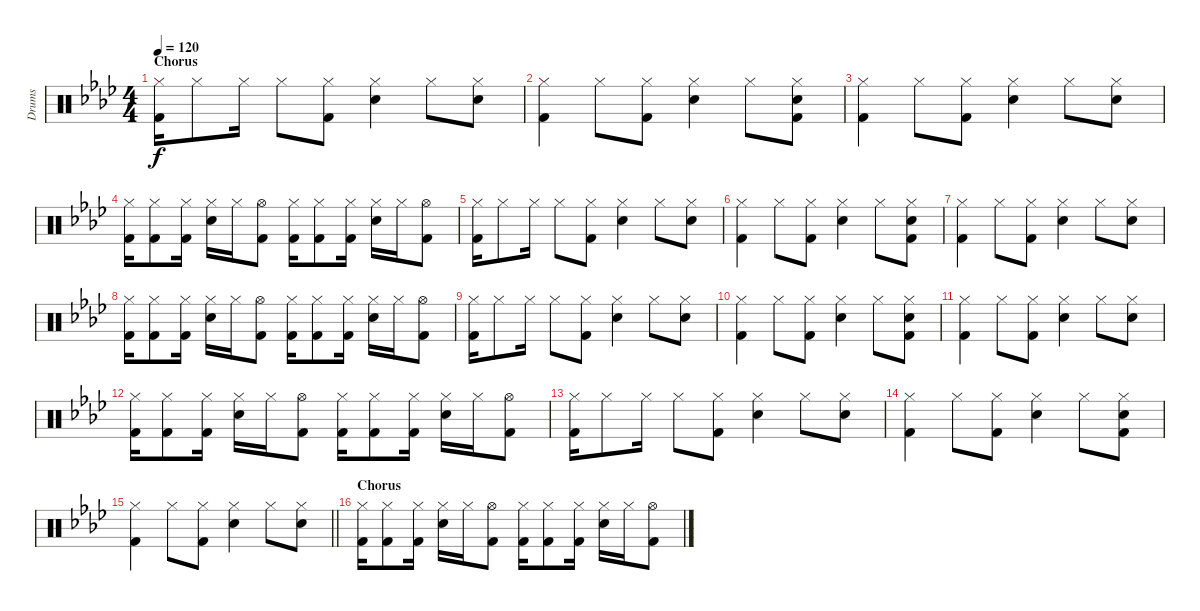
\track ("Drums" "Drums") {instrument percussion}
\staff {score}
\articulation defaults
\ts (4 4)
\section ("" "Chorus")
\tempo 120
\clef neutral
\ks fminor
("Hi-Hat (closed)" "Kick (hit) 2").16{dy f} "Hi-Hat (closed)".8 "Hi-Hat (closed)".16 "Hi-Hat (closed)".8 ("Hi-Hat (closed)" "Kick (hit) 2").8 ("Hi-Hat (closed)" "Snare (hit) 2").4 "Hi-Hat (closed)".8 ("Hi-Hat (closed)" "Snare (hit) 2").8 |
("Hi-Hat (closed)" "Kick (hit) 2").4 "Hi-Hat (closed)".8 ("Hi-Hat (closed)" "Kick (hit) 2").8 ("Hi-Hat (closed)" "Snare (hit) 2").4 "Hi-Hat (closed)".8 ("Hi-Hat (closed)" "Snare (hit) 2" "Kick (hit) 2").8 |
("Hi-Hat (closed)" "Kick (hit) 2").4 "Hi-Hat (closed)".8 ("Hi-Hat (closed)" "Kick (hit) 2").8 ("Hi-Hat (closed)" "Snare (hit) 2").4 "Hi-Hat (closed)".8 ("Hi-Hat (closed)" "Snare (hit) 2").8 |
("Hi-Hat (closed)" "Kick (hit) 2").16 ("Hi-Hat (closed)" "Kick (hit) 2").8 ("Hi-Hat (closed)" "Kick (hit) 2").16 ("Hi-Hat (closed)" "Snare (hit) 2").16 "Hi-Hat (closed)".16 ("Hi-Hat (open)" "Kick (hit) 2").8 ("Hi-Hat (closed)" "Kick (hit) 2").16 ("Hi-Hat (closed)" "Kick (hit) 2").8 ("Hi-Hat (closed)" "Kick (hit) 2").16 ("Hi-Hat (closed)" "Snare (hit) 2").16 "Hi-Hat (closed)".16 ("Hi-Hat (open)" "Kick (hit) 2").8 |
("Hi-Hat (closed)" "Kick (hit) 2").16 "Hi-Hat (closed)".8 "Hi-Hat (closed)".16 "Hi-Hat (closed)".8 ("Hi-Hat (closed)" "Kick (hit) 2").8 ("Hi-Hat (closed)" "Snare (hit) 2").4 "Hi-Hat (closed)".8 ("Hi-Hat (closed)" "Snare (hit) 2").8 |
("Hi-Hat (closed)" "Kick (hit) 2").4 "Hi-Hat (closed)".8 ("Hi-Hat (closed)" "Kick (hit) 2").8 ("Hi-Hat (closed)" "Snare (hit) 2").4 "Hi-Hat (closed)".8 ("Hi-Hat (closed)" "Snare (hit) 2" "Kick (hit) 2").8 |
("Hi-Hat (closed)" "Kick (hit) 2").4 "Hi-Hat (closed)".8 ("Hi-Hat (closed)" "Kick (hit) 2").8 ("Hi-Hat (closed)" "Snare (hit) 2").4 "Hi-Hat (closed)".8 ("Hi-Hat (closed)" "Snare (hit) 2").8 |
("Hi-Hat (closed)" "Kick (hit) 2").16 ("Hi-Hat (closed)" "Kick (hit) 2").8 ("Hi-Hat (closed)" "Kick (hit) 2").16 ("Hi-Hat (closed)" "Snare (hit) 2").16 "Hi-Hat (closed)".16 ("Hi-Hat (open)" "Kick (hit) 2").8 ("Hi-Hat (closed)" "Kick (hit) 2").16 ("Hi-Hat (closed)" "Kick (hit) 2").8 ("Hi-Hat (closed)" "Kick (hit) 2").16 ("Hi-Hat (closed)" "Snare (hit) 2").16 "Hi-Hat (closed)".16 ("Hi-Hat (open)" "Kick (hit) 2").8 |
("Hi-Hat (closed)" "Kick (hit) 2").16 "Hi-Hat (closed)".8 "Hi-Hat (closed)".16 "Hi-Hat (closed)".8 ("Hi-Hat (closed)" "Kick (hit) 2").8 ("Hi-Hat (closed)" "Snare (hit) 2").4 "Hi-Hat (closed)".8 ("Hi-Hat (closed)" "Snare (hit) 2").8 |
("Hi-Hat (closed)" "Kick (hit) 2").4 "Hi-Hat (closed)".8 ("Hi-Hat (closed)" "Kick (hit) 2").8 ("Hi-Hat (closed)" "Snare (hit) 2").4 "Hi-Hat (closed)".8 ("Hi-Hat (closed)" "Snare (hit) 2" "Kick (hit) 2").8 |
("Hi-Hat (closed)" "Kick (hit) 2").4 "Hi-Hat (closed)".8 ("Hi-Hat (closed)" "Kick (hit) 2").8 ("Hi-Hat (closed)" "Snare (hit) 2").4 "Hi-Hat (closed)".8 ("Hi-Hat (closed)" "Snare (hit) 2").8 |
("Hi-Hat (closed)" "Kick (hit) 2").16 ("Hi-Hat (closed)" "Kick (hit) 2").8 ("Hi-Hat (closed)" "Kick (hit) 2").16 ("Hi-Hat (closed)" "Snare (hit) 2").16 "Hi-Hat (closed)".16 ("Hi-Hat (open)" "Kick (hit) 2").8 ("Hi-Hat (closed)" "Kick (hit) 2").16 ("Hi-Hat (closed)" "Kick (hit) 2").8 ("Hi-Hat (closed)" "Kick (hit) 2").16 ("Hi-Hat (closed)" "Snare (hit) 2").16 "Hi-Hat (closed)".16 ("Hi-Hat (open)" "Kick (hit) 2").8 |
("Hi-Hat (closed)" "Kick (hit) 2").16 "Hi-Hat (closed)".8 "Hi-Hat (closed)".16 "Hi-Hat (closed)".8 ("Hi-Hat (closed)" "Kick (hit) 2").8 ("Hi-Hat (closed)" "Snare (hit) 2").4 "Hi-Hat (closed)".8 ("Hi-Hat (closed)" "Snare (hit) 2").8 |
("Hi-Hat (closed)" "Kick (hit) 2").4 "Hi-Hat (closed)".8 ("Hi-Hat (closed)" "Kick (hit) 2").8 ("Hi-Hat (closed)" "Snare (hit) 2").4 "Hi-Hat (closed)".8 ("Hi-Hat (closed)" "Snare (hit) 2" "Kick (hit) 2").8 |
\barLineRight lightlight
("Hi-Hat (closed)" "Kick (hit) 2").4 "Hi-Hat (closed)".8 ("Hi-Hat (closed)" "Kick (hit) 2").8 ("Hi-Hat (closed)" "Snare (hit) 2").4 "Hi-Hat (closed)".8 ("Hi-Hat (closed)" "Snare (hit) 2").8 |
\section ("" "Chorus")
("Hi-Hat (closed)" "Kick (hit) 2").16 ("Hi-Hat (closed)" "Kick (hit) 2").8 ("Hi-Hat (closed)" "Kick (hit) 2").16 ("Hi-Hat (closed)" "Snare (hit) 2").16 "Hi-Hat (closed)".16 ("Hi-Hat (open)" "Kick (hit) 2").8 ("Hi-Hat (closed)" "Kick (hit) 2").16 ("Hi-Hat (closed)" "Kick (hit) 2").8 ("Hi-Hat (closed)" "Kick (hit) 2").16 ("Hi-Hat (closed)" "Snare (hit) 2").16 "Hi-Hat (closed)".16 ("Hi-Hat (open)" "Kick (hit) 2").8
